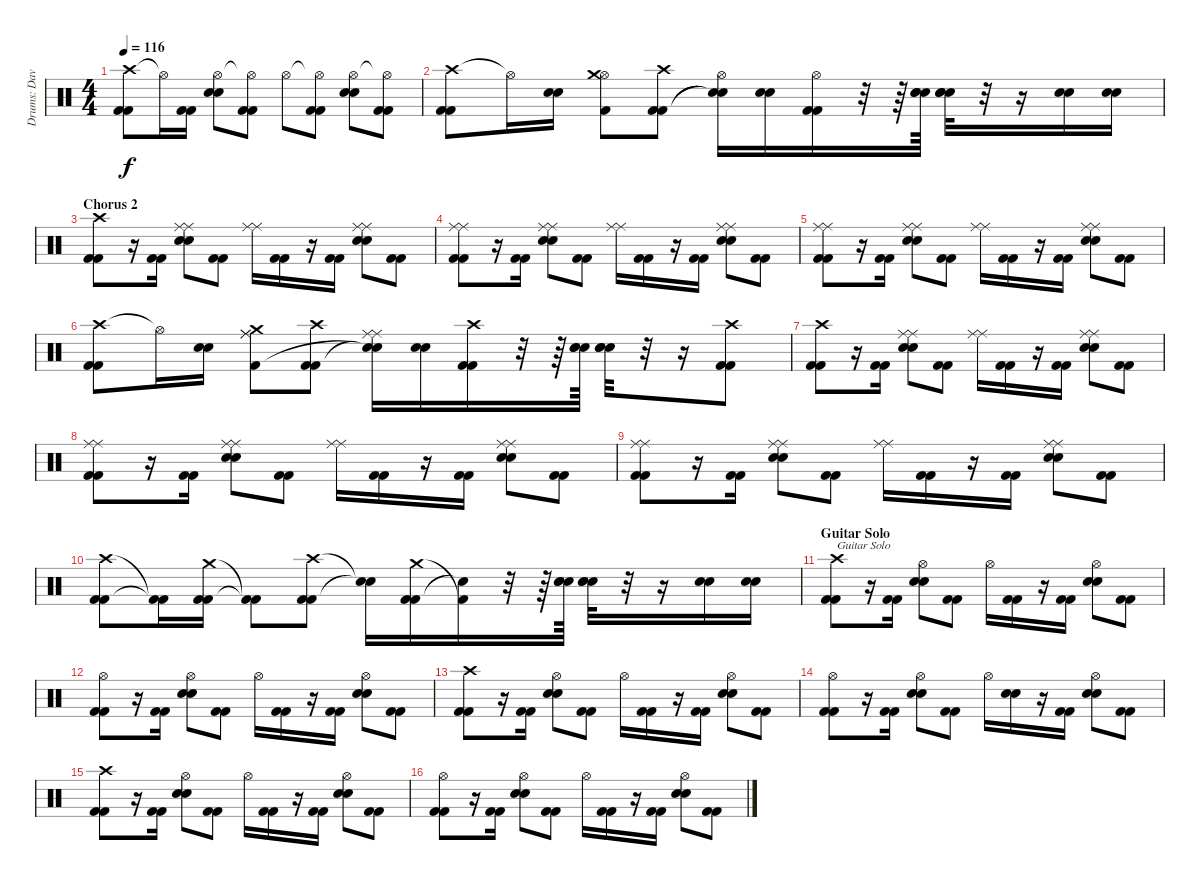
\track ("Drums: Dave Krusen" "Drums: Dav") {instrument percussion}
\staff {score}
\articulation defaults
\ts (4 4)
\tempo 116
\clef neutral
\ks c
("Crash high (hit)" "Kick (hit) 2" "Kick (hit) 2").8{dy f} "Hi-Hat (open)"{t}.16 ("Kick (hit) 2" "Kick (hit) 2").16 ("Hi-Hat (open)" "Electric Snare (hit)" "Electric Snare (hit)").8 ("Hi-Hat (open)"{t} "Kick (hit) 2" "Kick (hit) 2").8 "Hi-Hat (open)".8 ("Hi-Hat (open)"{t} "Kick (hit) 2" "Kick (hit) 2").8 ("Hi-Hat (open)" "Electric Snare (hit)" "Electric Snare (hit)").8 ("Hi-Hat (open)"{t} "Kick (hit) 2" "Kick (hit) 2").8 |
("Crash high (hit)" "Kick (hit) 2" "Kick (hit) 2").8 "Hi-Hat (open)"{t}.16 ("Electric Snare (hit)" "Electric Snare (hit)").16 ("Hi-Hat (open)" "Crash medium (hit)" "Kick (hit) 2").8 ("Crash high (hit)" "Kick (hit) 2" "Kick (hit) 2").8 ("Hi-Hat (open)" "Electric Snare (hit)"{t} "Snare (hit)"{t}).16 ("Electric Snare (hit)" "Electric Snare (hit)").16 ("Hi-Hat (open)" "Kick (hit) 2" "Kick (hit) 2").16 r.32 r.64 ("Electric Snare (hit)" "Electric Snare (hit)" "Electric Snare (hit)").64 ("Electric Snare (hit)" "Electric Snare (hit)" "Electric Snare (hit)").32 r.32 r.16 ("Electric Snare (hit)" "Electric Snare (hit)").16 ("Electric Snare (hit)" "Electric Snare (hit)").16 |
\section ("" "Chorus 2")
("Crash high (hit)" "Kick (hit) 2" "Kick (hit) 2").8 r.16 ("Kick (hit) 2" "Kick (hit) 2").16 ("Ride (middle)" "Ride (middle)" "Electric Snare (hit)" "Electric Snare (hit)").8 ("Kick (hit) 2" "Kick (hit) 2").8 ("Ride (middle)" "Ride (middle)").16 ("Kick (hit) 2" "Kick (hit) 2").16 r.16 ("Kick (hit) 2" "Kick (hit) 2").16 ("Ride (middle)" "Ride (middle)" "Electric Snare (hit)" "Electric Snare (hit)").8 ("Kick (hit) 2" "Kick (hit) 2").8 |
("Ride (middle)" "Ride (middle)" "Kick (hit) 2" "Kick (hit) 2").8 r.16 ("Kick (hit) 2" "Kick (hit) 2").16 ("Ride (middle)" "Ride (middle)" "Electric Snare (hit)" "Electric Snare (hit)").8 ("Kick (hit) 2" "Kick (hit) 2").8 ("Ride (middle)" "Ride (middle)").16 ("Kick (hit) 2" "Kick (hit) 2").16 r.16 ("Kick (hit) 2" "Kick (hit) 2").16 ("Ride (middle)" "Ride (middle)" "Electric Snare (hit)" "Electric Snare (hit)").8 ("Kick (hit) 2" "Kick (hit) 2").8 |
("Ride (middle)" "Ride (middle)" "Kick (hit) 2" "Kick (hit) 2").8 r.16 ("Kick (hit) 2" "Kick (hit) 2").16 ("Ride (middle)" "Ride (middle)" "Electric Snare (hit)" "Electric Snare (hit)").8 ("Kick (hit) 2" "Kick (hit) 2").8 ("Ride (middle)" "Ride (middle)").16 ("Kick (hit) 2" "Kick (hit) 2").16 r.16 ("Kick (hit) 2" "Kick (hit) 2").16 ("Ride (middle)" "Ride (middle)" "Electric Snare (hit)" "Electric Snare (hit)").8 ("Kick (hit) 2" "Kick (hit) 2").8 |
("Crash high (hit)" "Kick (hit) 2" "Kick (hit) 2").8 "Hi-Hat (open)"{t}.16 ("Electric Snare (hit)" "Electric Snare (hit)").16 ("Ride (middle)" "Ride (middle)" "Crash medium (hit)" "Kick (hit) 2").8 ("Crash high (hit)" "Kick (hit) 2" "Kick (hit) 2").8 ("Ride (middle)" "Ride (middle)" "Electric Snare (hit)"{t} "Snare (hit)"{t}).16 ("Electric Snare (hit)" "Electric Snare (hit)").16 ("Crash high (hit)" "Kick (hit) 2" "Kick (hit) 2").16 r.32 r.64 ("Electric Snare (hit)" "Electric Snare (hit)" "Electric Snare (hit)").64 ("Electric Snare (hit)" "Electric Snare (hit)" "Electric Snare (hit)").32 r.32 r.16 ("Crash high (hit)" "Kick (hit) 2" "Kick (hit) 2").8 |
("Crash high (hit)" "Kick (hit) 2" "Kick (hit) 2").8 r.16 ("Kick (hit) 2" "Kick (hit) 2").16 ("Ride (middle)" "Ride (middle)" "Electric Snare (hit)" "Electric Snare (hit)").8 ("Kick (hit) 2" "Kick (hit) 2").8 ("Ride (middle)" "Ride (middle)").16 ("Kick (hit) 2" "Kick (hit) 2").16 r.16 ("Kick (hit) 2" "Kick (hit) 2").16 ("Ride (middle)" "Ride (middle)" "Electric Snare (hit)" "Electric Snare (hit)").8 ("Kick (hit) 2" "Kick (hit) 2").8 |
("Ride (middle)" "Ride (middle)" "Kick (hit) 2" "Kick (hit) 2").8 r.16 ("Kick (hit) 2" "Kick (hit) 2").16 ("Ride (middle)" "Ride (middle)" "Electric Snare (hit)" "Electric Snare (hit)").8 ("Kick (hit) 2" "Kick (hit) 2").8 ("Ride (middle)" "Ride (middle)").16 ("Kick (hit) 2" "Kick (hit) 2").16 r.16 ("Kick (hit) 2" "Kick (hit) 2").16 ("Ride (middle)" "Ride (middle)" "Electric Snare (hit)" "Electric Snare (hit)").8 ("Kick (hit) 2" "Kick (hit) 2").8 |
("Ride (middle)" "Ride (middle)" "Kick (hit) 2" "Kick (hit) 2").8 r.16 ("Kick (hit) 2" "Kick (hit) 2").16 ("Ride (middle)" "Ride (middle)" "Electric Snare (hit)" "Electric Snare (hit)").8 ("Kick (hit) 2" "Kick (hit) 2").8 ("Ride (middle)" "Ride (middle)").16 ("Kick (hit) 2" "Kick (hit) 2").16 r.16 ("Kick (hit) 2" "Kick (hit) 2").16 ("Ride (middle)" "Ride (middle)" "Electric Snare (hit)" "Electric Snare (hit)").8 ("Kick (hit) 2" "Kick (hit) 2").8 |
("Crash high (hit)" "Kick (hit) 2" "Kick (hit) 2").8 ("Kick (hit) 2"{t} "Kick (hit) 2"{t}).16 ("Crash medium (hit)" "Kick (hit) 2" "Kick (hit) 2").16 ("Kick (hit) 2"{t} "Kick (hit) 2"{t}).8 ("Crash high (hit)" "Kick (hit) 2" "Kick (hit) 2").8 ("Electric Snare (hit)"{t} "Snare (hit)"{t}).16 ("Crash medium (hit)" "Kick (hit) 2" "Kick (hit) 2").16 ("Kick (hit) 2"{t} "Snare (hit)"{t}).16 r.32 r.64 ("Electric Snare (hit)" "Electric Snare (hit)" "Electric Snare (hit)").64 ("Electric Snare (hit)" "Electric Snare (hit)" "Electric Snare (hit)").32 r.32 r.16 ("Electric Snare (hit)" "Electric Snare (hit)").16 ("Electric Snare (hit)" "Electric Snare (hit)").16 |
\section ("" "Guitar Solo")
("Crash high (hit)" "Kick (hit) 2" "Kick (hit) 2").8{txt "Guitar Solo"} r.16 ("Kick (hit) 2" "Kick (hit) 2").16 ("Hi-Hat (open)" "Electric Snare (hit)" "Electric Snare (hit)").8 ("Kick (hit) 2" "Kick (hit) 2").8 "Hi-Hat (open)".16 ("Kick (hit) 2" "Kick (hit) 2").16 r.16 ("Kick (hit) 2" "Kick (hit) 2").16 ("Hi-Hat (open)" "Electric Snare (hit)" "Electric Snare (hit)").8 ("Kick (hit) 2" "Kick (hit) 2").8 |
("Hi-Hat (open)" "Kick (hit) 2" "Kick (hit) 2").8 r.16 ("Kick (hit) 2" "Kick (hit) 2").16 ("Hi-Hat (open)" "Electric Snare (hit)" "Electric Snare (hit)").8 ("Kick (hit) 2" "Kick (hit) 2").8 "Hi-Hat (open)".16 ("Kick (hit) 2" "Kick (hit) 2").16 r.16 ("Kick (hit) 2" "Kick (hit) 2").16 ("Hi-Hat (open)" "Electric Snare (hit)" "Electric Snare (hit)").8 ("Kick (hit) 2" "Kick (hit) 2").8 |
("Crash high (hit)" "Kick (hit) 2" "Kick (hit) 2").8 r.16 ("Kick (hit) 2" "Kick (hit) 2").16 ("Hi-Hat (open)" "Electric Snare (hit)" "Electric Snare (hit)").8 ("Kick (hit) 2" "Kick (hit) 2").8 "Hi-Hat (open)".16 ("Kick (hit) 2" "Kick (hit) 2").16 r.16 ("Kick (hit) 2" "Kick (hit) 2").16 ("Hi-Hat (open)" "Electric Snare (hit)" "Electric Snare (hit)").8 ("Kick (hit) 2" "Kick (hit) 2").8 |
("Hi-Hat (open)" "Kick (hit) 2" "Kick (hit) 2").8 r.16 ("Kick (hit) 2" "Kick (hit) 2").16 ("Hi-Hat (open)" "Electric Snare (hit)" "Electric Snare (hit)").8 ("Kick (hit) 2" "Kick (hit) 2").8 "Hi-Hat (open)".16 ("Electric Snare (hit)" "Electric Snare (hit)").16 r.16 ("Kick (hit) 2" "Kick (hit) 2").16 ("Hi-Hat (open)" "Electric Snare (hit)" "Electric Snare (hit)").8 ("Kick (hit) 2" "Kick (hit) 2").8 |
("Crash high (hit)" "Kick (hit) 2" "Kick (hit) 2").8 r.16 ("Kick (hit) 2" "Kick (hit) 2").16 ("Hi-Hat (open)" "Electric Snare (hit)" "Electric Snare (hit)").8 ("Kick (hit) 2" "Kick (hit) 2").8 "Hi-Hat (open)".16 ("Kick (hit) 2" "Kick (hit) 2").16 r.16 ("Kick (hit) 2" "Kick (hit) 2").16 ("Hi-Hat (open)" "Electric Snare (hit)" "Electric Snare (hit)").8 ("Kick (hit) 2" "Kick (hit) 2").8 |
("Hi-Hat (open)" "Kick (hit) 2" "Kick (hit) 2").8 r.16 ("Kick (hit) 2" "Kick (hit) 2").16 ("Hi-Hat (open)" "Electric Snare (hit)" "Electric Snare (hit)").8 ("Kick (hit) 2" "Kick (hit) 2").8 "Hi-Hat (open)".16 ("Kick (hit) 2" "Kick (hit) 2").16 r.16 ("Kick (hit) 2" "Kick (hit) 2").16 ("Hi-Hat (open)" "Electric Snare (hit)" "Electric Snare (hit)").8 ("Kick (hit) 2" "Kick (hit) 2").8
